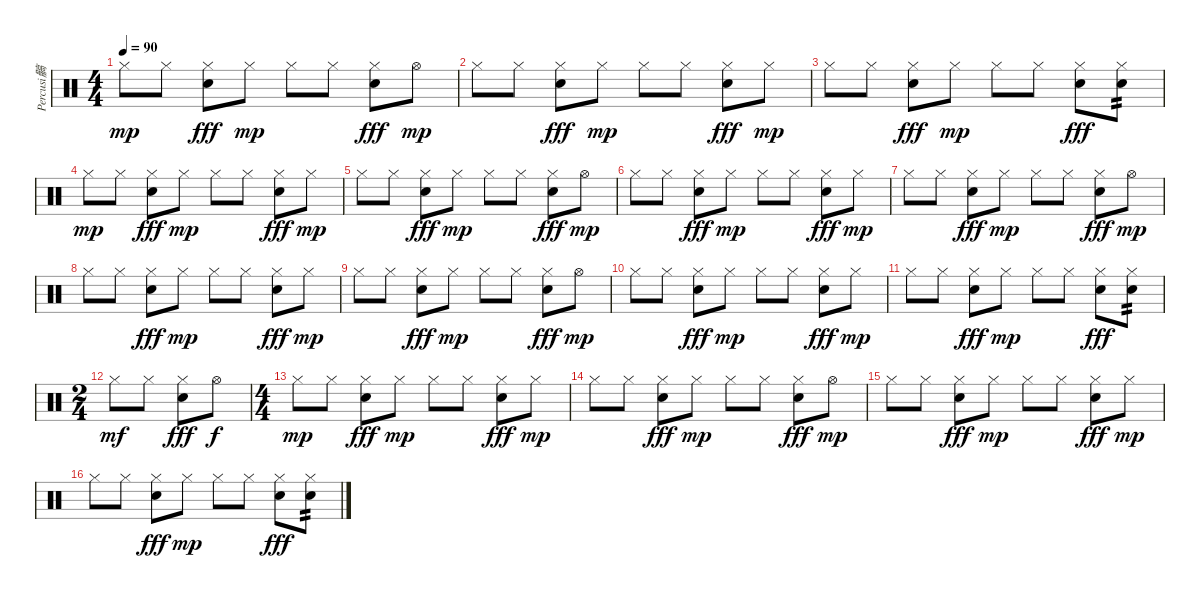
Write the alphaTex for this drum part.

\track ("Percusi髇" "Percusi髇") {instrument percussion}
\staff {score}
\articulation defaults
\ts (4 4)
\tempo 90
\clef neutral
\ks c "Hi-Hat (closed)".8{dy mp} "Hi-Hat (closed)".8
("Hi-Hat (closed)" "Electric Snare (hit)").8{dy fff} "Hi-Hat (closed)".8{dy mp} "Hi-Hat (closed)".8 "Hi-Hat (closed)".8 ("Hi-Hat (closed)" "Electric Snare (hit)").8{dy fff} "Hi-Hat (open)".8{dy mp} |
"Hi-Hat (closed)".8 "Hi-Hat (closed)".8 ("Hi-Hat (closed)" "Electric Snare (hit)").8{dy fff} "Hi-Hat (closed)".8{dy mp} "Hi-Hat (closed)".8 "Hi-Hat (closed)".8 ("Hi-Hat (closed)" "Electric Snare (hit)").8{dy fff} "Hi-Hat (closed)".8{dy mp} |
"Hi-Hat (closed)".8 "Hi-Hat (closed)".8 ("Hi-Hat (closed)" "Electric Snare (hit)").8{dy fff} "Hi-Hat (closed)".8{dy mp} "Hi-Hat (closed)".8 "Hi-Hat (closed)".8 ("Hi-Hat (closed)" "Electric Snare (hit)").8{dy fff} ("Hi-Hat (closed)" "Electric Snare (hit)").8{tp 2} |
"Hi-Hat (closed)".8{dy mp} "Hi-Hat (closed)".8 ("Hi-Hat (closed)" "Electric Snare (hit)").8{dy fff} "Hi-Hat (closed)".8{dy mp} "Hi-Hat (closed)".8 "Hi-Hat (closed)".8 ("Hi-Hat (closed)" "Electric Snare (hit)").8{dy fff} "Hi-Hat (closed)".8{dy mp} |
"Hi-Hat (closed)".8 "Hi-Hat (closed)".8 ("Hi-Hat (closed)" "Electric Snare (hit)").8{dy fff} "Hi-Hat (closed)".8{dy mp} "Hi-Hat (closed)".8 "Hi-Hat (closed)".8 ("Hi-Hat (closed)" "Electric Snare (hit)").8{dy fff} "Hi-Hat (open)".8{dy mp} |
"Hi-Hat (closed)".8 "Hi-Hat (closed)".8 ("Hi-Hat (closed)" "Electric Snare (hit)").8{dy fff} "Hi-Hat (closed)".8{dy mp} "Hi-Hat (closed)".8 "Hi-Hat (closed)".8 ("Hi-Hat (closed)" "Electric Snare (hit)").8{dy fff} "Hi-Hat (closed)".8{dy mp} |
"Hi-Hat (closed)".8 "Hi-Hat (closed)".8 ("Hi-Hat (closed)" "Electric Snare (hit)").8{dy fff} "Hi-Hat (closed)".8{dy mp} "Hi-Hat (closed)".8 "Hi-Hat (closed)".8 ("Hi-Hat (closed)" "Electric Snare (hit)").8{dy fff} "Hi-Hat (open)".8{dy mp} |
"Hi-Hat (closed)".8 "Hi-Hat (closed)".8 ("Hi-Hat (closed)" "Electric Snare (hit)").8{dy fff} "Hi-Hat (closed)".8{dy mp} "Hi-Hat (closed)".8 "Hi-Hat (closed)".8 ("Hi-Hat (closed)" "Electric Snare (hit)").8{dy fff} "Hi-Hat (closed)".8{dy mp} |
"Hi-Hat (closed)".8 "Hi-Hat (closed)".8 ("Hi-Hat (closed)" "Electric Snare (hit)").8{dy fff} "Hi-Hat (closed)".8{dy mp} "Hi-Hat (closed)".8 "Hi-Hat (closed)".8 ("Hi-Hat (closed)" "Electric Snare (hit)").8{dy fff} "Hi-Hat (open)".8{dy mp} |
"Hi-Hat (closed)".8 "Hi-Hat (closed)".8 ("Hi-Hat (closed)" "Electric Snare (hit)").8{dy fff} "Hi-Hat (closed)".8{dy mp} "Hi-Hat (closed)".8 "Hi-Hat (closed)".8 ("Hi-Hat (closed)" "Electric Snare (hit)").8{dy fff} "Hi-Hat (closed)".8{dy mp} |
"Hi-Hat (closed)".8 "Hi-Hat (closed)".8 ("Hi-Hat (closed)" "Electric Snare (hit)").8{dy fff} "Hi-Hat (closed)".8{dy mp} "Hi-Hat (closed)".8 "Hi-Hat (closed)".8 ("Hi-Hat (closed)" "Electric Snare (hit)").8{dy fff} ("Hi-Hat (closed)" "Electric Snare (hit)").8{tp 2} |
\ts (2 4)
"Hi-Hat (closed)".8{dy mf} "Hi-Hat (closed)".8 ("Hi-Hat (closed)" "Electric Snare (hit)").8{dy fff} "Hi-Hat (open)".8{dy f} |
\ts (4 4)
"Hi-Hat (closed)".8{dy mp} "Hi-Hat (closed)".8 ("Hi-Hat (closed)" "Electric Snare (hit)").8{dy fff} "Hi-Hat (closed)".8{dy mp} "Hi-Hat (closed)".8 "Hi-Hat (closed)".8 ("Hi-Hat (closed)" "Electric Snare (hit)").8{dy fff} "Hi-Hat (closed)".8{dy mp} |
"Hi-Hat (closed)".8 "Hi-Hat (closed)".8 ("Hi-Hat (closed)" "Electric Snare (hit)").8{dy fff} "Hi-Hat (closed)".8{dy mp} "Hi-Hat (closed)".8 "Hi-Hat (closed)".8 ("Hi-Hat (closed)" "Electric Snare (hit)").8{dy fff} "Hi-Hat (open)".8{dy mp} |
"Hi-Hat (closed)".8 "Hi-Hat (closed)".8 ("Hi-Hat (closed)" "Electric Snare (hit)").8{dy fff} "Hi-Hat (closed)".8{dy mp} "Hi-Hat (closed)".8 "Hi-Hat (closed)".8 ("Hi-Hat (closed)" "Electric Snare (hit)").8{dy fff} "Hi-Hat (closed)".8{dy mp} |
"Hi-Hat (closed)".8 "Hi-Hat (closed)".8 ("Hi-Hat (closed)" "Electric Snare (hit)").8{dy fff} "Hi-Hat (closed)".8{dy mp} "Hi-Hat (closed)".8 "Hi-Hat (closed)".8 ("Hi-Hat (closed)" "Electric Snare (hit)").8{dy fff} ("Hi-Hat (closed)" "Electric Snare (hit)").8{tp 2}
